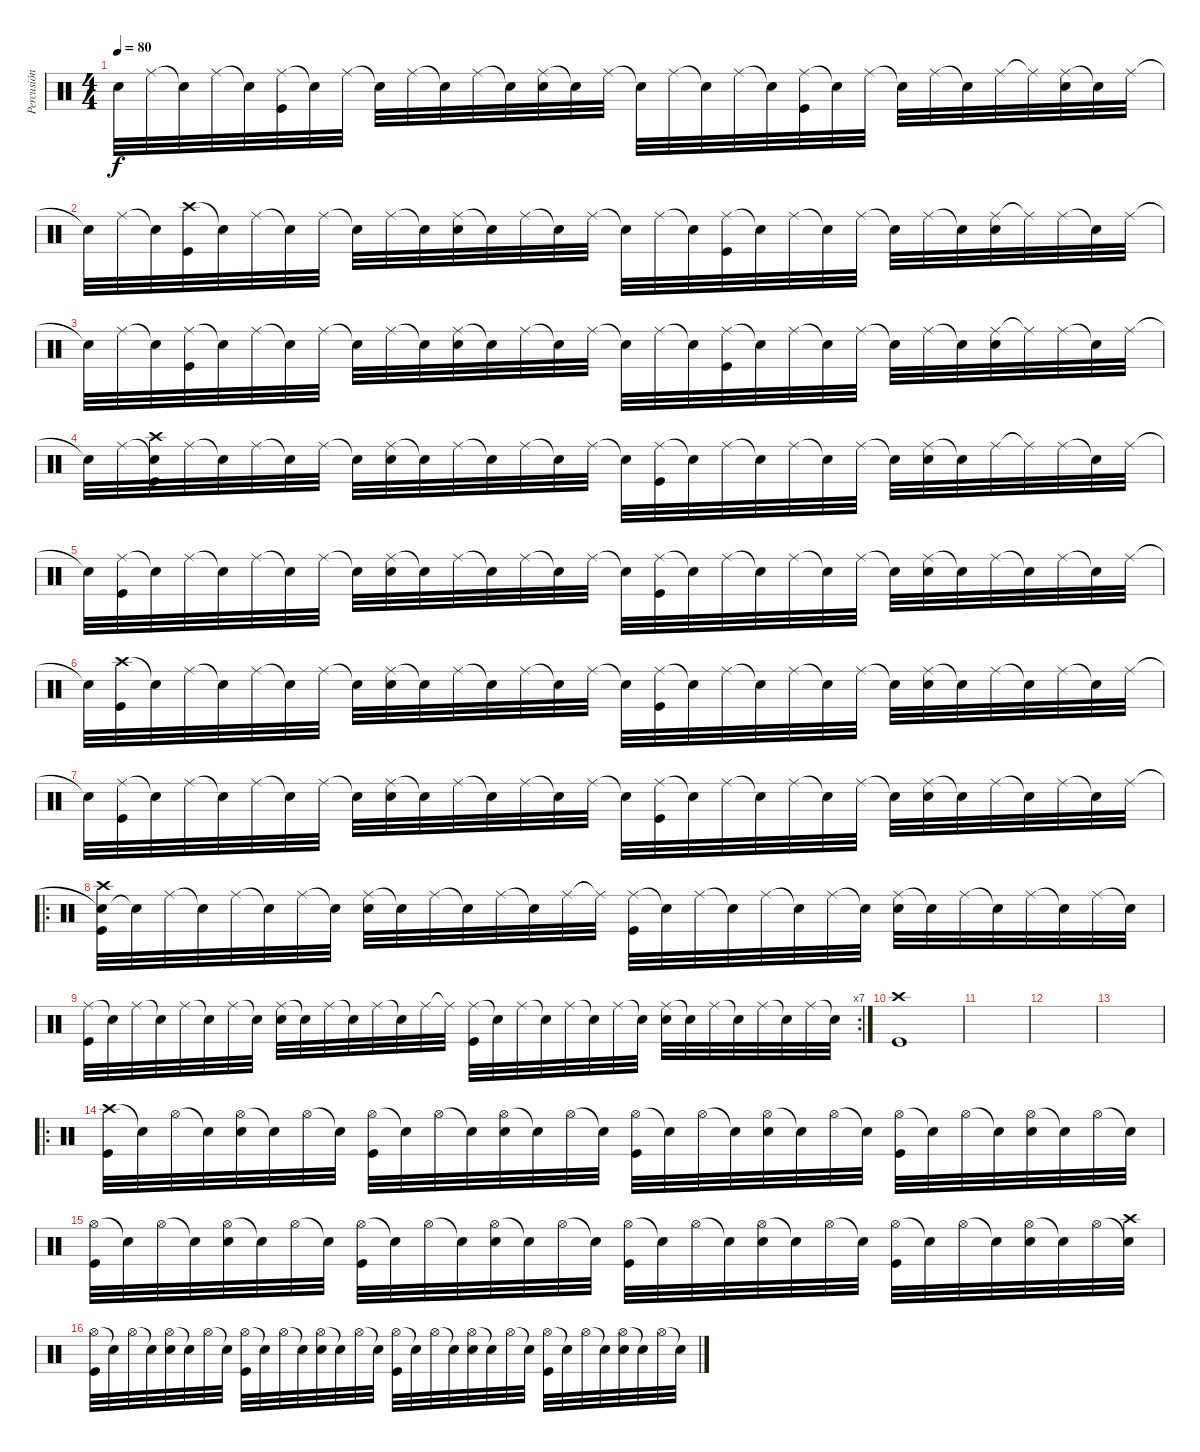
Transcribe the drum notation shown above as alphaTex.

\track ("Percusión" "Percusión") {instrument percussion}
\staff {score}
\articulation defaults
\ts (4 4)
\tempo 80
\clef neutral
\ks c "Snare (hit)"{t}.32{dy f} "Ride (middle)".32 "Snare (hit)"{t}.32 "Ride (middle)".32 "Snare (hit)"{t}.32
("Ride (middle)" "Kick (hit)").32 "Snare (hit)"{t}.32 "Ride (middle)".32 "Snare (hit)"{t}.32 "Ride (middle)".32 "Snare (hit)"{t}.32 "Ride (middle)".32 "Snare (hit)"{t}.32 ("Ride (middle)" "Electric Snare (hit)").32 "Snare (hit)"{t}.32 "Ride (middle)".32 "Snare (hit)"{t}.32 "Ride (middle)".32 "Snare (hit)"{t}.32 "Ride (middle)".32 "Snare (hit)"{t}.32 ("Ride (middle)" "Kick (hit)").32 "Snare (hit)"{t}.32 "Ride (middle)".32 "Snare (hit)"{t}.32 "Ride (middle)".32 "Snare (hit)"{t}.32 "Ride (middle)".32 "Ride (middle)"{t}.32 ("Ride (middle)" "Electric Snare (hit)").32 "Snare (hit)"{t}.32 "Ride (middle)".32 |
"Snare (hit)"{t}.32 "Ride (middle)".32 "Snare (hit)"{t}.32 ("Crash high (hit)" "Kick (hit)").32 "Snare (hit)"{t}.32 "Ride (middle)".32 "Snare (hit)"{t}.32 "Ride (middle)".32 "Snare (hit)"{t}.32 "Ride (middle)".32 "Snare (hit)"{t}.32 ("Ride (middle)" "Electric Snare (hit)").32 "Snare (hit)"{t}.32 "Ride (middle)".32 "Snare (hit)"{t}.32 "Ride (middle)".32 "Snare (hit)"{t}.32 "Ride (middle)".32 "Snare (hit)"{t}.32 ("Ride (middle)" "Kick (hit)").32 "Snare (hit)"{t}.32 "Ride (middle)".32 "Snare (hit)"{t}.32 "Ride (middle)".32 "Snare (hit)"{t}.32 "Ride (middle)".32 "Snare (hit)"{t}.32 ("Ride (middle)" "Electric Snare (hit)").32 "Ride (middle)"{t}.32 "Ride (middle)".32 "Snare (hit)"{t}.32 "Ride (middle)".32 |
"Snare (hit)"{t}.32 "Ride (middle)".32 "Snare (hit)"{t}.32 ("Ride (middle)" "Kick (hit)").32 "Snare (hit)"{t}.32 "Ride (middle)".32 "Snare (hit)"{t}.32 "Ride (middle)".32 "Snare (hit)"{t}.32 "Ride (middle)".32 "Snare (hit)"{t}.32 ("Ride (middle)" "Electric Snare (hit)").32 "Snare (hit)"{t}.32 "Ride (middle)".32 "Snare (hit)"{t}.32 "Ride (middle)".32 "Snare (hit)"{t}.32 "Ride (middle)".32 "Snare (hit)"{t}.32 ("Ride (middle)" "Kick (hit)").32 "Snare (hit)"{t}.32 "Ride (middle)".32 "Snare (hit)"{t}.32 "Ride (middle)".32 "Snare (hit)"{t}.32 "Ride (middle)".32 "Snare (hit)"{t}.32 ("Ride (middle)" "Electric Snare (hit)").32 "Ride (middle)"{t}.32 "Ride (middle)".32 "Snare (hit)"{t}.32 "Ride (middle)".32 |
"Snare (hit)"{t}.32 "Ride (middle)".32 ("Snare (hit)"{t} "Crash high (hit)" "Kick (hit)").32 "Ride (middle)".32 "Snare (hit)"{t}.32 "Ride (middle)".32 "Snare (hit)"{t}.32 "Ride (middle)".32 "Snare (hit)"{t}.32 ("Ride (middle)" "Electric Snare (hit)").32 "Snare (hit)"{t}.32 "Ride (middle)".32 "Snare (hit)"{t}.32 "Ride (middle)".32 "Snare (hit)"{t}.32 "Ride (middle)".32 "Snare (hit)"{t}.32 ("Ride (middle)" "Kick (hit)").32 "Snare (hit)"{t}.32 "Ride (middle)".32 "Snare (hit)"{t}.32 "Ride (middle)".32 "Snare (hit)"{t}.32 "Ride (middle)".32 "Snare (hit)"{t}.32 ("Ride (middle)" "Electric Snare (hit)").32 "Snare (hit)"{t}.32 "Ride (middle)".32 "Ride (middle)"{t}.32 "Ride (middle)".32 "Snare (hit)"{t}.32 "Ride (middle)".32 |
"Snare (hit)"{t}.32 ("Ride (middle)" "Kick (hit)").32 "Snare (hit)"{t}.32 "Ride (middle)".32 "Snare (hit)"{t}.32 "Ride (middle)".32 "Snare (hit)"{t}.32 "Ride (middle)".32 "Snare (hit)"{t}.32 ("Ride (middle)" "Electric Snare (hit)").32 "Snare (hit)"{t}.32 "Ride (middle)".32 "Snare (hit)"{t}.32 "Ride (middle)".32 "Snare (hit)"{t}.32 "Ride (middle)".32 "Snare (hit)"{t}.32 ("Ride (middle)" "Kick (hit)").32 "Snare (hit)"{t}.32 "Ride (middle)".32 "Snare (hit)"{t}.32 "Ride (middle)".32 "Snare (hit)"{t}.32 "Ride (middle)".32 "Snare (hit)"{t}.32 ("Ride (middle)" "Electric Snare (hit)").32 "Snare (hit)"{t}.32 "Ride (middle)".32 "Snare (hit)"{t}.32 "Ride (middle)".32 "Snare (hit)"{t}.32 "Ride (middle)".32 |
"Snare (hit)"{t}.32 ("Crash high (hit)" "Kick (hit)").32 "Snare (hit)"{t}.32 "Ride (middle)".32 "Snare (hit)"{t}.32 "Ride (middle)".32 "Snare (hit)"{t}.32 "Ride (middle)".32 "Snare (hit)"{t}.32 ("Ride (middle)" "Electric Snare (hit)").32 "Snare (hit)"{t}.32 "Ride (middle)".32 "Snare (hit)"{t}.32 "Ride (middle)".32 "Snare (hit)"{t}.32 "Ride (middle)".32 "Snare (hit)"{t}.32 ("Ride (middle)" "Kick (hit)").32 "Snare (hit)"{t}.32 "Ride (middle)".32 "Snare (hit)"{t}.32 "Ride (middle)".32 "Snare (hit)"{t}.32 "Ride (middle)".32 "Snare (hit)"{t}.32 ("Ride (middle)" "Electric Snare (hit)").32 "Snare (hit)"{t}.32 "Ride (middle)".32 "Snare (hit)"{t}.32 "Ride (middle)".32 "Snare (hit)"{t}.32 "Ride (middle)".32 |
"Snare (hit)"{t}.32 ("Ride (middle)" "Kick (hit)").32 "Snare (hit)"{t}.32 "Ride (middle)".32 "Snare (hit)"{t}.32 "Ride (middle)".32 "Snare (hit)"{t}.32 "Ride (middle)".32 "Snare (hit)"{t}.32 ("Ride (middle)" "Electric Snare (hit)").32 "Snare (hit)"{t}.32 "Ride (middle)".32 "Snare (hit)"{t}.32 "Ride (middle)".32 "Snare (hit)"{t}.32 "Ride (middle)".32 "Snare (hit)"{t}.32 ("Ride (middle)" "Kick (hit)").32 "Snare (hit)"{t}.32 "Ride (middle)".32 "Snare (hit)"{t}.32 "Ride (middle)".32 "Snare (hit)"{t}.32 "Ride (middle)".32 "Snare (hit)"{t}.32 ("Ride (middle)" "Electric Snare (hit)").32 "Snare (hit)"{t}.32 "Ride (middle)".32 "Snare (hit)"{t}.32 "Ride (middle)".32 "Snare (hit)"{t}.32 "Ride (middle)".32 |
\ro
("Snare (hit)"{t} "Crash high (hit)" "Kick (hit)").32 "Snare (hit)"{t}.32 "Ride (middle)".32 "Snare (hit)"{t}.32 "Ride (middle)".32 "Snare (hit)"{t}.32 "Ride (middle)".32 "Snare (hit)"{t}.32 ("Ride (middle)" "Electric Snare (hit)").32 "Snare (hit)"{t}.32 "Ride (middle)".32 "Snare (hit)"{t}.32 "Ride (middle)".32 "Snare (hit)"{t}.32 "Ride (middle)".32 "Ride (middle)"{t}.32 ("Ride (middle)" "Kick (hit)").32 "Snare (hit)"{t}.32 "Ride (middle)".32 "Snare (hit)"{t}.32 "Ride (middle)".32 "Snare (hit)"{t}.32 "Ride (middle)".32 "Snare (hit)"{t}.32 ("Ride (middle)" "Electric Snare (hit)").32 "Snare (hit)"{t}.32 "Ride (middle)".32 "Snare (hit)"{t}.32 "Ride (middle)".32 "Snare (hit)"{t}.32 "Ride (middle)".32 "Snare (hit)"{t}.32 |
\rc 7
("Ride (middle)" "Kick (hit)").32 "Snare (hit)"{t}.32 "Ride (middle)".32 "Snare (hit)"{t}.32 "Ride (middle)".32 "Snare (hit)"{t}.32 "Ride (middle)".32 "Snare (hit)"{t}.32 ("Ride (middle)" "Electric Snare (hit)").32 "Snare (hit)"{t}.32 "Ride (middle)".32 "Snare (hit)"{t}.32 "Ride (middle)".32 "Snare (hit)"{t}.32 "Ride (middle)".32 "Ride (middle)"{t}.32 ("Ride (middle)" "Kick (hit)").32 "Snare (hit)"{t}.32 "Ride (middle)".32 "Snare (hit)"{t}.32 "Ride (middle)".32 "Snare (hit)"{t}.32 "Ride (middle)".32 "Snare (hit)"{t}.32 ("Ride (middle)" "Electric Snare (hit)").32 "Snare (hit)"{t}.32 "Ride (middle)".32 "Snare (hit)"{t}.32 "Ride (middle)".32 "Snare (hit)"{t}.32 "Ride (middle)".32 "Snare (hit)"{t}.32 |
("Crash high (hit)" "Kick (hit)").1 |
|
|
|
\ro
("Crash high (hit)" "Kick (hit)").32 "Snare (hit)"{t}.32 "Hi-Hat (open)".32 "Snare (hit)"{t}.32 ("Hi-Hat (open)" "Electric Snare (hit)").32 "Snare (hit)"{t}.32 "Hi-Hat (open)".32 "Snare (hit)"{t}.32 ("Hi-Hat (open)" "Kick (hit)").32 "Snare (hit)"{t}.32 "Hi-Hat (open)".32 "Snare (hit)"{t}.32 ("Hi-Hat (open)" "Electric Snare (hit)").32 "Snare (hit)"{t}.32 "Hi-Hat (open)".32 "Snare (hit)"{t}.32 ("Hi-Hat (open)" "Kick (hit)").32 "Snare (hit)"{t}.32 "Hi-Hat (open)".32 "Snare (hit)"{t}.32 ("Hi-Hat (open)" "Electric Snare (hit)").32 "Snare (hit)"{t}.32 "Hi-Hat (open)".32 "Snare (hit)"{t}.32 ("Hi-Hat (open)" "Kick (hit)").32 "Snare (hit)"{t}.32 "Hi-Hat (open)".32 "Snare (hit)"{t}.32 ("Hi-Hat (open)" "Electric Snare (hit)").32 "Snare (hit)"{t}.32 "Hi-Hat (open)".32 "Snare (hit)"{t}.32 |
("Hi-Hat (open)" "Kick (hit)").32 "Snare (hit)"{t}.32 "Hi-Hat (open)".32 "Snare (hit)"{t}.32 ("Hi-Hat (open)" "Electric Snare (hit)").32 "Snare (hit)"{t}.32 "Hi-Hat (open)".32 "Snare (hit)"{t}.32 ("Hi-Hat (open)" "Kick (hit)").32 "Snare (hit)"{t}.32 "Hi-Hat (open)".32 "Snare (hit)"{t}.32 ("Hi-Hat (open)" "Electric Snare (hit)").32 "Snare (hit)"{t}.32 "Hi-Hat (open)".32 "Snare (hit)"{t}.32 ("Hi-Hat (open)" "Kick (hit)").32 "Snare (hit)"{t}.32 "Hi-Hat (open)".32 "Snare (hit)"{t}.32 ("Hi-Hat (open)" "Electric Snare (hit)").32 "Snare (hit)"{t}.32 "Hi-Hat (open)".32 "Snare (hit)"{t}.32 ("Hi-Hat (open)" "Kick (hit)").32 "Snare (hit)"{t}.32 "Hi-Hat (open)".32 "Snare (hit)"{t}.32 ("Hi-Hat (open)" "Electric Snare (hit)").32 "Snare (hit)"{t}.32 "Hi-Hat (open)".32 ("Snare (hit)"{t} "Crash high (hit)").32 |
("Hi-Hat (open)" "Kick (hit)").32 "Snare (hit)"{t}.32 "Hi-Hat (open)".32 "Snare (hit)"{t}.32 ("Hi-Hat (open)" "Electric Snare (hit)").32 "Snare (hit)"{t}.32 "Hi-Hat (open)".32 "Snare (hit)"{t}.32 ("Hi-Hat (open)" "Kick (hit)").32 "Snare (hit)"{t}.32 "Hi-Hat (open)".32 "Snare (hit)"{t}.32 ("Hi-Hat (open)" "Electric Snare (hit)").32 "Snare (hit)"{t}.32 "Hi-Hat (open)".32 "Snare (hit)"{t}.32 ("Hi-Hat (open)" "Kick (hit)").32 "Snare (hit)"{t}.32 "Hi-Hat (open)".32 "Snare (hit)"{t}.32 ("Hi-Hat (open)" "Electric Snare (hit)").32 "Snare (hit)"{t}.32 "Hi-Hat (open)".32 "Snare (hit)"{t}.32 ("Hi-Hat (open)" "Kick (hit)").32 "Snare (hit)"{t}.32 "Hi-Hat (open)".32 "Snare (hit)"{t}.32 ("Hi-Hat (open)" "Electric Snare (hit)").32 "Snare (hit)"{t}.32 "Hi-Hat (open)".32 "Snare (hit)"{t}.32
